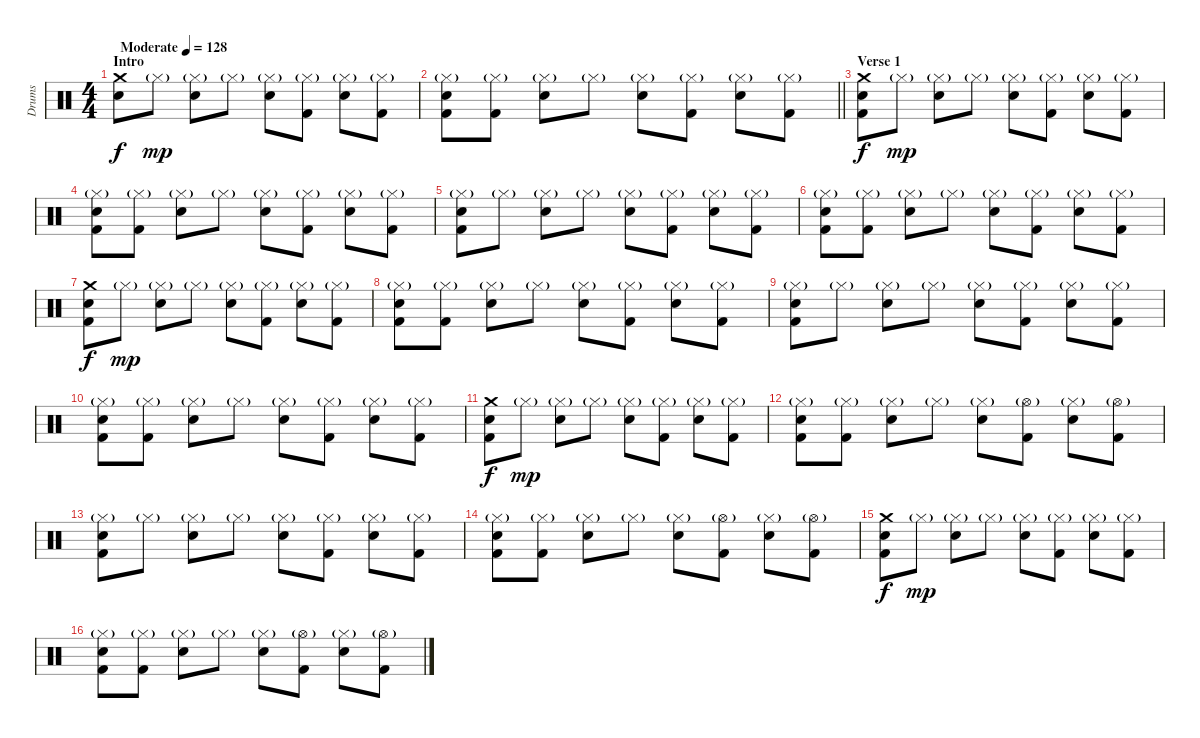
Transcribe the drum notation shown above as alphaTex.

\track ("Drums" "Drums") {instrument percussion}
\staff {score}
\articulation defaults
\ts (4 4)
\section ("" "Intro")
\tempo (128 "Moderate")
\clef neutral
\ks c
("Crash medium (hit)" "Electric Snare (hit)").8{dy f} "Hi-Hat (closed)"{g}.8{dy mp} ("Hi-Hat (closed)"{g} "Electric Snare (hit)").8 "Hi-Hat (closed)"{g}.8 ("Hi-Hat (closed)"{g} "Electric Snare (hit)").8 ("Hi-Hat (closed)"{g} "Kick (hit) 2").8 ("Hi-Hat (closed)"{g} "Electric Snare (hit)").8 ("Hi-Hat (closed)"{g} "Kick (hit) 2").8 |
\barLineRight lightlight
("Hi-Hat (closed)"{g} "Electric Snare (hit)" "Kick (hit) 2").8 ("Hi-Hat (closed)"{g} "Kick (hit) 2").8 ("Hi-Hat (closed)"{g} "Electric Snare (hit)").8 "Hi-Hat (closed)"{g}.8 ("Hi-Hat (closed)"{g} "Electric Snare (hit)").8 ("Hi-Hat (closed)"{g} "Kick (hit) 2").8 ("Hi-Hat (closed)"{g} "Electric Snare (hit)").8 ("Hi-Hat (closed)"{g} "Kick (hit) 2").8 |
\section ("" "Verse 1")
("Crash medium (hit)" "Electric Snare (hit)" "Kick (hit) 2").8{dy f} "Hi-Hat (closed)"{g}.8{dy mp} ("Hi-Hat (closed)"{g} "Electric Snare (hit)").8 "Hi-Hat (closed)"{g}.8 ("Hi-Hat (closed)"{g} "Electric Snare (hit)").8 ("Hi-Hat (closed)"{g} "Kick (hit) 2").8 ("Hi-Hat (closed)"{g} "Electric Snare (hit)").8 ("Hi-Hat (closed)"{g} "Kick (hit) 2").8 |
("Hi-Hat (closed)"{g} "Electric Snare (hit)" "Kick (hit) 2").8 ("Hi-Hat (closed)"{g} "Kick (hit) 2").8 ("Hi-Hat (closed)"{g} "Electric Snare (hit)").8 "Hi-Hat (closed)"{g}.8 ("Hi-Hat (closed)"{g} "Electric Snare (hit)").8 ("Hi-Hat (closed)"{g} "Kick (hit) 2").8 ("Hi-Hat (closed)"{g} "Electric Snare (hit)").8 ("Hi-Hat (closed)"{g} "Kick (hit) 2").8 |
("Hi-Hat (closed)"{g} "Electric Snare (hit)" "Kick (hit) 2").8 "Hi-Hat (closed)"{g}.8 ("Hi-Hat (closed)"{g} "Electric Snare (hit)").8 "Hi-Hat (closed)"{g}.8 ("Hi-Hat (closed)"{g} "Electric Snare (hit)").8 ("Hi-Hat (closed)"{g} "Kick (hit) 2").8 ("Hi-Hat (closed)"{g} "Electric Snare (hit)").8 ("Hi-Hat (closed)"{g} "Kick (hit) 2").8 |
("Hi-Hat (closed)"{g} "Electric Snare (hit)" "Kick (hit) 2").8 ("Hi-Hat (closed)"{g} "Kick (hit) 2").8 ("Hi-Hat (closed)"{g} "Electric Snare (hit)").8 "Hi-Hat (closed)"{g}.8 ("Hi-Hat (closed)"{g} "Electric Snare (hit)").8 ("Hi-Hat (closed)"{g} "Kick (hit) 2").8 ("Hi-Hat (closed)"{g} "Electric Snare (hit)").8 ("Hi-Hat (closed)"{g} "Kick (hit) 2").8 |
("Crash medium (hit)" "Electric Snare (hit)" "Kick (hit) 2").8{dy f} "Hi-Hat (closed)"{g}.8{dy mp} ("Hi-Hat (closed)"{g} "Electric Snare (hit)").8 "Hi-Hat (closed)"{g}.8 ("Hi-Hat (closed)"{g} "Electric Snare (hit)").8 ("Hi-Hat (closed)"{g} "Kick (hit) 2").8 ("Hi-Hat (closed)"{g} "Electric Snare (hit)").8 ("Hi-Hat (closed)"{g} "Kick (hit) 2").8 |
("Hi-Hat (closed)"{g} "Electric Snare (hit)" "Kick (hit) 2").8 ("Hi-Hat (closed)"{g} "Kick (hit) 2").8 ("Hi-Hat (closed)"{g} "Electric Snare (hit)").8 "Hi-Hat (closed)"{g}.8 ("Hi-Hat (closed)"{g} "Electric Snare (hit)").8 ("Hi-Hat (closed)"{g} "Kick (hit) 2").8 ("Hi-Hat (closed)"{g} "Electric Snare (hit)").8 ("Hi-Hat (closed)"{g} "Kick (hit) 2").8 |
("Hi-Hat (closed)"{g} "Electric Snare (hit)" "Kick (hit) 2").8 "Hi-Hat (closed)"{g}.8 ("Hi-Hat (closed)"{g} "Electric Snare (hit)").8 "Hi-Hat (closed)"{g}.8 ("Hi-Hat (closed)"{g} "Electric Snare (hit)").8 ("Hi-Hat (closed)"{g} "Kick (hit) 2").8 ("Hi-Hat (closed)"{g} "Electric Snare (hit)").8 ("Hi-Hat (closed)"{g} "Kick (hit) 2").8 |
("Hi-Hat (closed)"{g} "Electric Snare (hit)" "Kick (hit) 2").8 ("Hi-Hat (closed)"{g} "Kick (hit) 2").8 ("Hi-Hat (closed)"{g} "Electric Snare (hit)").8 "Hi-Hat (closed)"{g}.8 ("Hi-Hat (closed)"{g} "Electric Snare (hit)").8 ("Hi-Hat (closed)"{g} "Kick (hit) 2").8 ("Hi-Hat (closed)"{g} "Electric Snare (hit)").8 ("Hi-Hat (closed)"{g} "Kick (hit) 2").8 |
("Crash medium (hit)" "Electric Snare (hit)" "Kick (hit) 2").8{dy f} "Hi-Hat (closed)"{g}.8{dy mp} ("Hi-Hat (closed)"{g} "Electric Snare (hit)").8 "Hi-Hat (closed)"{g}.8 ("Hi-Hat (closed)"{g} "Electric Snare (hit)").8 ("Hi-Hat (closed)"{g} "Kick (hit) 2").8 ("Hi-Hat (closed)"{g} "Electric Snare (hit)").8 ("Hi-Hat (closed)"{g} "Kick (hit) 2").8 |
("Hi-Hat (closed)"{g} "Electric Snare (hit)" "Kick (hit) 2").8 ("Hi-Hat (closed)"{g} "Kick (hit) 2").8 ("Hi-Hat (closed)"{g} "Electric Snare (hit)").8 "Hi-Hat (closed)"{g}.8 ("Hi-Hat (closed)"{g} "Electric Snare (hit)").8 ("Hi-Hat (open)"{g} "Kick (hit) 2").8 ("Hi-Hat (closed)"{g} "Electric Snare (hit)").8 ("Hi-Hat (open)"{g} "Kick (hit) 2").8 |
("Hi-Hat (closed)"{g} "Electric Snare (hit)" "Kick (hit) 2").8 "Hi-Hat (closed)"{g}.8 ("Hi-Hat (closed)"{g} "Electric Snare (hit)").8 "Hi-Hat (closed)"{g}.8 ("Hi-Hat (closed)"{g} "Electric Snare (hit)").8 ("Hi-Hat (closed)"{g} "Kick (hit) 2").8 ("Hi-Hat (closed)"{g} "Electric Snare (hit)").8 ("Hi-Hat (closed)"{g} "Kick (hit) 2").8 |
("Hi-Hat (closed)"{g} "Electric Snare (hit)" "Kick (hit) 2").8 ("Hi-Hat (closed)"{g} "Kick (hit) 2").8 ("Hi-Hat (closed)"{g} "Electric Snare (hit)").8 "Hi-Hat (closed)"{g}.8 ("Hi-Hat (closed)"{g} "Electric Snare (hit)").8 ("Hi-Hat (open)"{g} "Kick (hit) 2").8 ("Hi-Hat (closed)"{g} "Electric Snare (hit)").8 ("Hi-Hat (open)"{g} "Kick (hit) 2").8 |
("Crash medium (hit)" "Electric Snare (hit)" "Kick (hit) 2").8{dy f} "Hi-Hat (closed)"{g}.8{dy mp} ("Hi-Hat (closed)"{g} "Electric Snare (hit)").8 "Hi-Hat (closed)"{g}.8 ("Hi-Hat (closed)"{g} "Electric Snare (hit)").8 ("Hi-Hat (closed)"{g} "Kick (hit) 2").8 ("Hi-Hat (closed)"{g} "Electric Snare (hit)").8 ("Hi-Hat (closed)"{g} "Kick (hit) 2").8 |
("Hi-Hat (closed)"{g} "Electric Snare (hit)" "Kick (hit) 2").8 ("Hi-Hat (closed)"{g} "Kick (hit) 2").8 ("Hi-Hat (closed)"{g} "Electric Snare (hit)").8 "Hi-Hat (closed)"{g}.8 ("Hi-Hat (closed)"{g} "Electric Snare (hit)").8 ("Hi-Hat (open)"{g} "Kick (hit) 2").8 ("Hi-Hat (closed)"{g} "Electric Snare (hit)").8 ("Hi-Hat (open)"{g} "Kick (hit) 2").8
